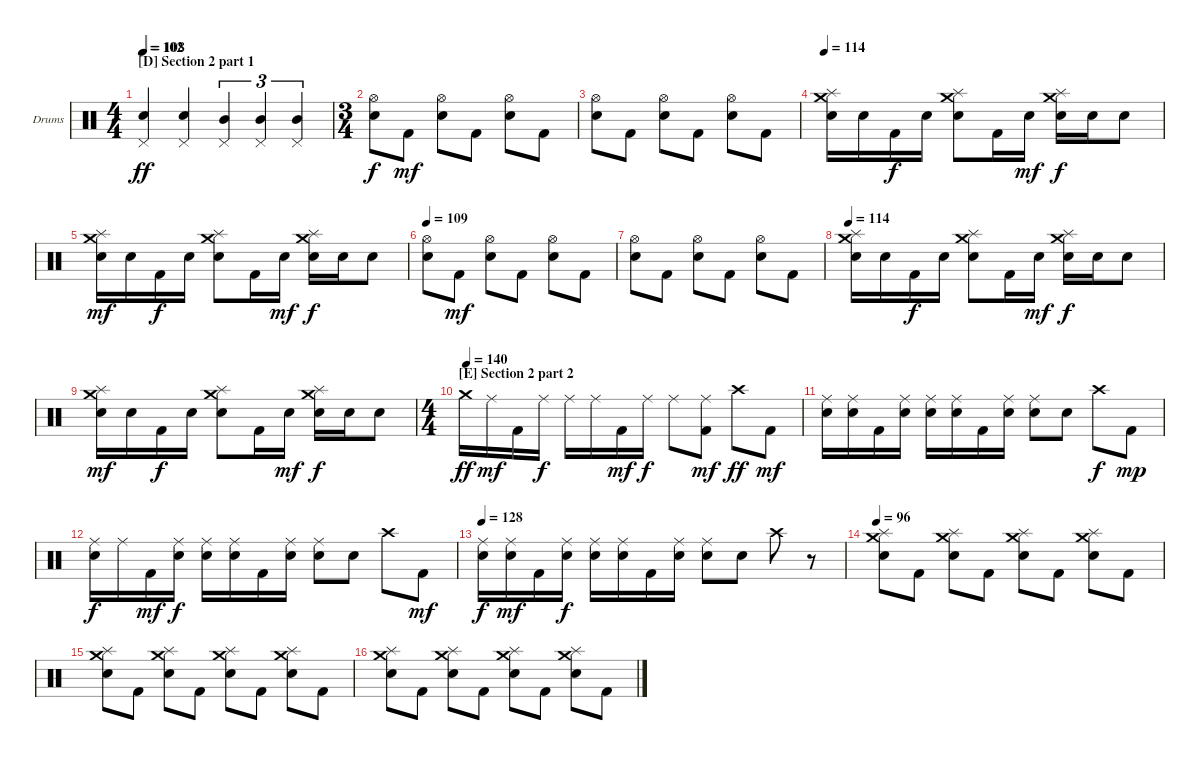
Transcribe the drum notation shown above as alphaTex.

\defaultSystemsLayout 4
\bracketExtendMode nobrackets
\firstSystemTrackNameOrientation horizontal
\otherSystemsTrackNameOrientation horizontal
\track ("Drums" "Drums") {instrument percussion}
\staff
\articulation defaults
\ts (4 4)
\beaming (8 2 2 2 2)
\section ("D" "Section 2 part 1")
\tempo 102
\tempo (108 0.00625)
\clef neutral
\ks c
("Pedal Hi-Hat (hit)" "Snare (hit) 2").4{dy ff} ("Pedal Hi-Hat (hit)" "Snare (hit) 2").4 ("Mid Tom (hit)" "Pedal Hi-Hat (hit)").4{tu (3 2)} ("Pedal Hi-Hat (hit)" "Mid Tom (hit)").4{tu (3 2)} ("Pedal Hi-Hat (hit)" "Mid Tom (hit)").4{tu (3 2)} |
\ts (3 4)
\beaming (8 2 2 2)
("Snare (hit) 2" "Hi-Hat (open)").8{dy f} "Kick (hit) 2".8{dy mf} ("Snare (hit) 2" "Hi-Hat (open)").8 "Kick (hit) 2".8 ("Snare (hit) 2" "Hi-Hat (open)").8 "Kick (hit) 2".8 |
("Snare (hit) 2" "Hi-Hat (open)").8 "Kick (hit) 2".8 ("Snare (hit) 2" "Hi-Hat (open)").8 "Kick (hit) 2".8 ("Snare (hit) 2" "Hi-Hat (open)").8 "Kick (hit) 2".8 |
\tempo 114
("Snare (hit) 2" "Splash (hit)" "Crash medium (hit)").16 "Snare (hit) 2".16 "Kick (hit) 2".16{dy f} "Snare (hit) 2".16 ("Snare (hit) 2" "Crash medium (hit)" "Splash (hit)").8 "Kick (hit) 2".16 "Snare (hit) 2".16{dy mf} ("Crash medium (hit)" "Snare (hit) 2" "Splash (hit)").16{dy f} "Snare (hit) 2".16 "Snare (hit) 2".8 |
("Crash medium (hit)" "Snare (hit) 2" "Splash (hit)").16{dy mf} "Snare (hit) 2".16 "Kick (hit) 2".16{dy f} "Snare (hit) 2".16 ("Snare (hit) 2" "Crash medium (hit)" "Splash (hit)").8 "Kick (hit) 2".16 "Snare (hit) 2".16{dy mf} ("Crash medium (hit)" "Snare (hit) 2" "Splash (hit)").16{dy f} "Snare (hit) 2".16 "Snare (hit) 2".8 |
\tempo 109
("Snare (hit) 2" "Hi-Hat (open)").8 "Kick (hit) 2".8{dy mf} ("Snare (hit) 2" "Hi-Hat (open)").8 "Kick (hit) 2".8 ("Snare (hit) 2" "Hi-Hat (open)").8 "Kick (hit) 2".8 |
("Snare (hit) 2" "Hi-Hat (open)").8 "Kick (hit) 2".8 ("Snare (hit) 2" "Hi-Hat (open)").8 "Kick (hit) 2".8 ("Snare (hit) 2" "Hi-Hat (open)").8 "Kick (hit) 2".8 |
\tempo 114
("Crash medium (hit)" "Snare (hit) 2" "Splash (hit)").16 "Snare (hit) 2".16 "Kick (hit) 2".16{dy f} "Snare (hit) 2".16 ("Snare (hit) 2" "Crash medium (hit)" "Splash (hit)").8 "Kick (hit) 2".16 "Snare (hit) 2".16{dy mf} ("Crash medium (hit)" "Snare (hit) 2" "Splash (hit)").16{dy f} "Snare (hit) 2".16 "Snare (hit) 2".8 |
("Crash medium (hit)" "Snare (hit) 2" "Splash (hit)").16{dy mf} "Snare (hit) 2".16 "Kick (hit) 2".16{dy f} "Snare (hit) 2".16 ("Snare (hit) 2" "Crash medium (hit)" "Splash (hit)").8 "Kick (hit) 2".16 "Snare (hit) 2".16{dy mf} ("Crash medium (hit)" "Snare (hit) 2" "Splash (hit)").16{dy f} "Snare (hit) 2".16 "Snare (hit) 2".8 |
\ts (4 4)
\beaming (8 2 2 2 2)
\section ("E" "Section 2 part 2")
\tempo (140 0.00625)
"Crash medium (hit)".16{dy ff} "Ride (middle)".16{dy mf} "Kick (hit) 2".16 "Ride (middle)".16{dy f} "Ride (middle)".16 "Ride (middle)".16 "Kick (hit) 2".16{dy mf} "Ride (middle)".16{dy f} "Ride (middle)".8 ("Ride (middle)" "Kick (hit) 2").8{dy mf} "Crash high (hit)".8{dy ff} "Kick (hit) 2".8{dy mf} |
("Ride (middle)" "Snare (hit) 2").16 ("Ride (middle)" "Snare (hit) 2").16 "Kick (hit) 2".16 ("Ride (middle)" "Snare (hit) 2").16 ("Ride (middle)" "Snare (hit) 2").16 ("Ride (middle)" "Snare (hit) 2").16 "Kick (hit) 2".16 ("Ride (middle)" "Snare (hit) 2").16 ("Ride (middle)" "Snare (hit) 2").8 "Snare (hit) 2".8 "Crash high (hit)".8{dy f} "Kick (hit) 2".8{dy mp} |
("Ride (middle)" "Snare (hit) 2").16{dy f} "Ride (middle)".16 "Kick (hit) 2".16{dy mf} ("Ride (middle)" "Snare (hit) 2").16{dy f} ("Ride (middle)" "Snare (hit) 2").16 ("Ride (middle)" "Snare (hit) 2").16 "Kick (hit) 2".16 ("Ride (middle)" "Snare (hit) 2").16 ("Ride (middle)" "Snare (hit) 2").8 "Snare (hit) 2".8 "Crash high (hit)".8 "Kick (hit) 2".8{dy mf} |
\scale
0.842671
\tempo 128
("Ride (middle)" "Snare (hit) 2").16{dy f} ("Ride (middle)" "Snare (hit) 2").16{dy mf} "Kick (hit) 2".16 ("Ride (middle)" "Snare (hit) 2").16{dy f} ("Ride (middle)" "Snare (hit) 2").16 ("Ride (middle)" "Snare (hit) 2").16 "Kick (hit) 2".16 ("Ride (middle)" "Snare (hit) 2").16 ("Ride (middle)" "Snare (hit) 2").8 "Snare (hit) 2".8 "Crash high (hit)".8 r.8 |
\scale
1.2476
\tempo 96
("Snare (hit) 2" "Crash medium (hit)" "Splash (hit)").8 "Kick (hit) 2".8 ("Snare (hit) 2" "Crash medium (hit)" "Splash (hit)").8 "Kick (hit) 2".8 ("Snare (hit) 2" "Crash medium (hit)" "Splash (hit)").8 "Kick (hit) 2".8 ("Snare (hit) 2" "Crash medium (hit)" "Splash (hit)").8 "Kick (hit) 2".8 |
\scale
0.933958 ("Snare (hit) 2" "Crash medium (hit)" "Splash (hit)").8 "Kick (hit) 2".8 ("Snare (hit) 2" "Crash medium (hit)" "Splash (hit)").8 "Kick (hit) 2".8 ("Snare (hit) 2" "Crash medium (hit)" "Splash (hit)").8 "Kick (hit) 2".8 ("Snare (hit) 2" "Crash medium (hit)" "Splash (hit)").8 "Kick (hit) 2".8 |
\scale
0.97577 ("Snare (hit) 2" "Crash medium (hit)" "Splash (hit)").8 "Kick (hit) 2".8 ("Snare (hit) 2" "Crash medium (hit)" "Splash (hit)").8 "Kick (hit) 2".8 ("Snare (hit) 2" "Crash medium (hit)" "Splash (hit)").8 "Kick (hit) 2".8 ("Snare (hit) 2" "Crash medium (hit)" "Splash (hit)").8 "Kick (hit) 2".8
